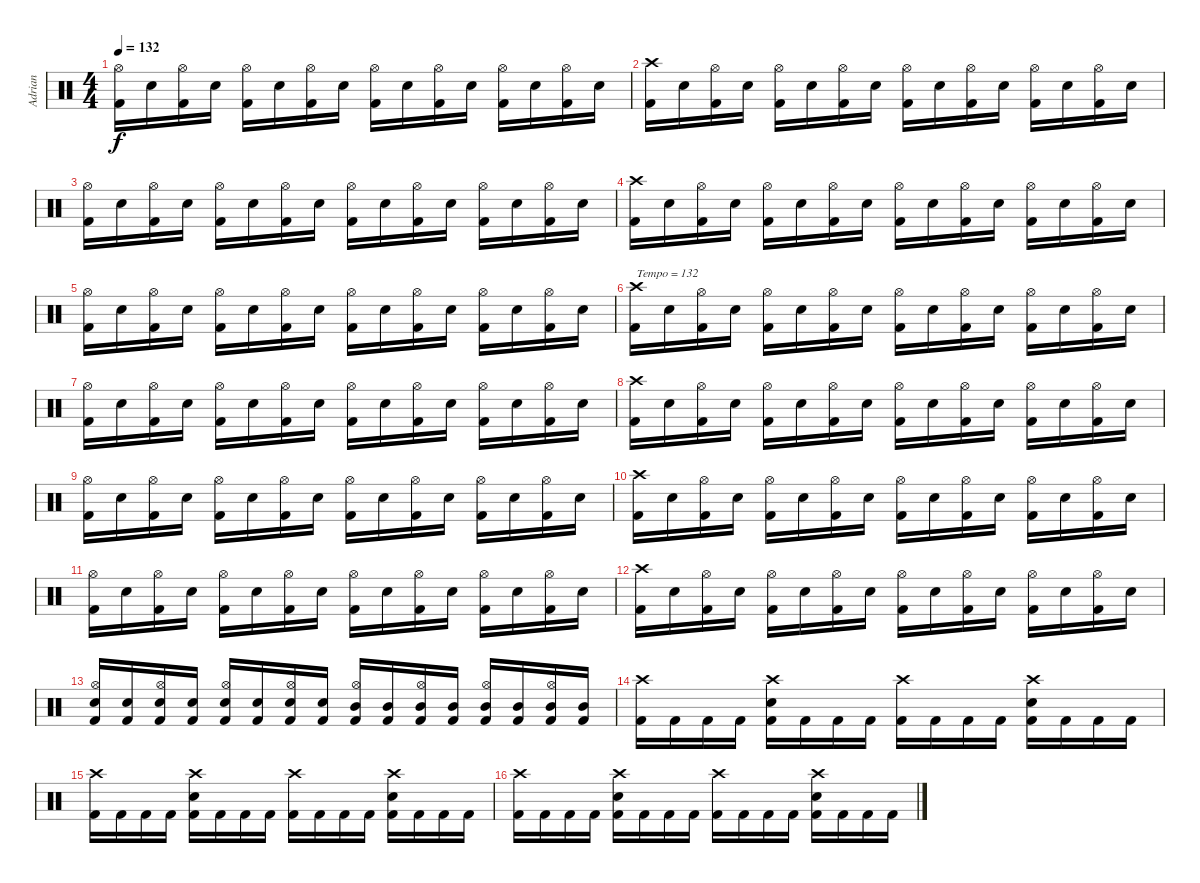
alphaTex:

\track ("Adrian" "Adrian") {instrument percussion}
\staff {score}
\articulation defaults
\ts (4 4)
\tempo 132
\clef neutral
\ks c
("Kick (hit) 2" "Hi-Hat (open)").16{dy f} "Snare (hit) 2".16 ("Kick (hit) 2" "Hi-Hat (open)").16 "Snare (hit) 2".16 ("Kick (hit) 2" "Hi-Hat (open)").16 "Snare (hit) 2".16 ("Kick (hit) 2" "Hi-Hat (open)").16 "Snare (hit) 2".16 ("Kick (hit) 2" "Hi-Hat (open)").16 "Snare (hit) 2".16 ("Kick (hit) 2" "Hi-Hat (open)").16 "Snare (hit) 2".16 ("Kick (hit) 2" "Hi-Hat (open)").16 "Snare (hit) 2".16 ("Kick (hit) 2" "Hi-Hat (open)").16 "Snare (hit) 2".16 |
("Kick (hit) 2" "Crash high (hit)").16 "Snare (hit) 2".16 ("Kick (hit) 2" "Hi-Hat (open)").16 "Snare (hit) 2".16 ("Kick (hit) 2" "Hi-Hat (open)").16 "Snare (hit) 2".16 ("Kick (hit) 2" "Hi-Hat (open)").16 "Snare (hit) 2".16 ("Kick (hit) 2" "Hi-Hat (open)").16 "Snare (hit) 2".16 ("Kick (hit) 2" "Hi-Hat (open)").16 "Snare (hit) 2".16 ("Kick (hit) 2" "Hi-Hat (open)").16 "Snare (hit) 2".16 ("Kick (hit) 2" "Hi-Hat (open)").16 "Snare (hit) 2".16 |
("Kick (hit) 2" "Hi-Hat (open)").16 "Snare (hit) 2".16 ("Kick (hit) 2" "Hi-Hat (open)").16 "Snare (hit) 2".16 ("Kick (hit) 2" "Hi-Hat (open)").16 "Snare (hit) 2".16 ("Kick (hit) 2" "Hi-Hat (open)").16 "Snare (hit) 2".16 ("Kick (hit) 2" "Hi-Hat (open)").16 "Snare (hit) 2".16 ("Kick (hit) 2" "Hi-Hat (open)").16 "Snare (hit) 2".16 ("Kick (hit) 2" "Hi-Hat (open)").16 "Snare (hit) 2".16 ("Kick (hit) 2" "Hi-Hat (open)").16 "Snare (hit) 2".16 |
("Kick (hit) 2" "Crash high (hit)").16 "Snare (hit) 2".16 ("Kick (hit) 2" "Hi-Hat (open)").16 "Snare (hit) 2".16 ("Kick (hit) 2" "Hi-Hat (open)").16 "Snare (hit) 2".16 ("Kick (hit) 2" "Hi-Hat (open)").16 "Snare (hit) 2".16 ("Kick (hit) 2" "Hi-Hat (open)").16 "Snare (hit) 2".16 ("Kick (hit) 2" "Hi-Hat (open)").16 "Snare (hit) 2".16 ("Kick (hit) 2" "Hi-Hat (open)").16 "Snare (hit) 2".16 ("Kick (hit) 2" "Hi-Hat (open)").16 "Snare (hit) 2".16 |
("Kick (hit) 2" "Hi-Hat (open)").16 "Snare (hit) 2".16 ("Kick (hit) 2" "Hi-Hat (open)").16 "Snare (hit) 2".16 ("Kick (hit) 2" "Hi-Hat (open)").16 "Snare (hit) 2".16 ("Kick (hit) 2" "Hi-Hat (open)").16 "Snare (hit) 2".16 ("Kick (hit) 2" "Hi-Hat (open)").16 "Snare (hit) 2".16 ("Kick (hit) 2" "Hi-Hat (open)").16 "Snare (hit) 2".16 ("Kick (hit) 2" "Hi-Hat (open)").16 "Snare (hit) 2".16 ("Kick (hit) 2" "Hi-Hat (open)").16 "Snare (hit) 2".16 |
("Kick (hit) 2" "Crash high (hit)").16{txt "Tempo = 132"} "Snare (hit) 2".16 ("Kick (hit) 2" "Hi-Hat (open)").16 "Snare (hit) 2".16 ("Kick (hit) 2" "Hi-Hat (open)").16 "Snare (hit) 2".16 ("Kick (hit) 2" "Hi-Hat (open)").16 "Snare (hit) 2".16 ("Kick (hit) 2" "Hi-Hat (open)").16 "Snare (hit) 2".16 ("Kick (hit) 2" "Hi-Hat (open)").16 "Snare (hit) 2".16 ("Kick (hit) 2" "Hi-Hat (open)").16 "Snare (hit) 2".16 ("Kick (hit) 2" "Hi-Hat (open)").16 "Snare (hit) 2".16 |
("Kick (hit) 2" "Hi-Hat (open)").16 "Snare (hit) 2".16 ("Kick (hit) 2" "Hi-Hat (open)").16 "Snare (hit) 2".16 ("Kick (hit) 2" "Hi-Hat (open)").16 "Snare (hit) 2".16 ("Kick (hit) 2" "Hi-Hat (open)").16 "Snare (hit) 2".16 ("Kick (hit) 2" "Hi-Hat (open)").16 "Snare (hit) 2".16 ("Kick (hit) 2" "Hi-Hat (open)").16 "Snare (hit) 2".16 ("Kick (hit) 2" "Hi-Hat (open)").16 "Snare (hit) 2".16 ("Kick (hit) 2" "Hi-Hat (open)").16 "Snare (hit) 2".16 |
("Kick (hit) 2" "Crash high (hit)").16 "Snare (hit) 2".16 ("Kick (hit) 2" "Hi-Hat (open)").16 "Snare (hit) 2".16 ("Kick (hit) 2" "Hi-Hat (open)").16 "Snare (hit) 2".16 ("Kick (hit) 2" "Hi-Hat (open)").16 "Snare (hit) 2".16 ("Kick (hit) 2" "Hi-Hat (open)").16 "Snare (hit) 2".16 ("Kick (hit) 2" "Hi-Hat (open)").16 "Snare (hit) 2".16 ("Kick (hit) 2" "Hi-Hat (open)").16 "Snare (hit) 2".16 ("Kick (hit) 2" "Hi-Hat (open)").16 "Snare (hit) 2".16 |
("Kick (hit) 2" "Hi-Hat (open)").16 "Snare (hit) 2".16 ("Kick (hit) 2" "Hi-Hat (open)").16 "Snare (hit) 2".16 ("Kick (hit) 2" "Hi-Hat (open)").16 "Snare (hit) 2".16 ("Kick (hit) 2" "Hi-Hat (open)").16 "Snare (hit) 2".16 ("Kick (hit) 2" "Hi-Hat (open)").16 "Snare (hit) 2".16 ("Kick (hit) 2" "Hi-Hat (open)").16 "Snare (hit) 2".16 ("Kick (hit) 2" "Hi-Hat (open)").16 "Snare (hit) 2".16 ("Kick (hit) 2" "Hi-Hat (open)").16 "Snare (hit) 2".16 |
("Kick (hit) 2" "Crash high (hit)").16 "Snare (hit) 2".16 ("Kick (hit) 2" "Hi-Hat (open)").16 "Snare (hit) 2".16 ("Kick (hit) 2" "Hi-Hat (open)").16 "Snare (hit) 2".16 ("Kick (hit) 2" "Hi-Hat (open)").16 "Snare (hit) 2".16 ("Kick (hit) 2" "Hi-Hat (open)").16 "Snare (hit) 2".16 ("Kick (hit) 2" "Hi-Hat (open)").16 "Snare (hit) 2".16 ("Kick (hit) 2" "Hi-Hat (open)").16 "Snare (hit) 2".16 ("Kick (hit) 2" "Hi-Hat (open)").16 "Snare (hit) 2".16 |
("Kick (hit) 2" "Hi-Hat (open)").16 "Snare (hit) 2".16 ("Kick (hit) 2" "Hi-Hat (open)").16 "Snare (hit) 2".16 ("Kick (hit) 2" "Hi-Hat (open)").16 "Snare (hit) 2".16 ("Kick (hit) 2" "Hi-Hat (open)").16 "Snare (hit) 2".16 ("Kick (hit) 2" "Hi-Hat (open)").16 "Snare (hit) 2".16 ("Kick (hit) 2" "Hi-Hat (open)").16 "Snare (hit) 2".16 ("Kick (hit) 2" "Hi-Hat (open)").16 "Snare (hit) 2".16 ("Kick (hit) 2" "Hi-Hat (open)").16 "Snare (hit) 2".16 |
("Kick (hit) 2" "Crash high (hit)").16 "Snare (hit) 2".16 ("Kick (hit) 2" "Hi-Hat (open)").16 "Snare (hit) 2".16 ("Kick (hit) 2" "Hi-Hat (open)").16 "Snare (hit) 2".16 ("Kick (hit) 2" "Hi-Hat (open)").16 "Snare (hit) 2".16 ("Kick (hit) 2" "Hi-Hat (open)").16 "Snare (hit) 2".16 ("Kick (hit) 2" "Hi-Hat (open)").16 "Snare (hit) 2".16 ("Kick (hit) 2" "Hi-Hat (open)").16 "Snare (hit) 2".16 ("Kick (hit) 2" "Hi-Hat (open)").16 "Snare (hit) 2".16 |
("Kick (hit) 2" "Snare (hit) 2" "Hi-Hat (open)").16 ("Kick (hit) 2" "Snare (hit) 2").16 ("Kick (hit) 2" "Snare (hit) 2" "Hi-Hat (open)").16 ("Kick (hit) 2" "Snare (hit) 2").16 ("Kick (hit) 2" "Snare (hit) 2" "Hi-Hat (open)").16 ("Kick (hit) 2" "Snare (hit) 2").16 ("Kick (hit) 2" "Snare (hit) 2" "Hi-Hat (open)").16 ("Kick (hit) 2" "Snare (hit) 2").16 ("Kick (hit) 2" "Mid Tom (hit)" "Hi-Hat (open)").16 ("Kick (hit) 2" "Mid Tom (hit)").16 ("Kick (hit) 2" "Mid Tom (hit)" "Hi-Hat (open)").16 ("Kick (hit) 2" "Mid Tom (hit)").16 ("Kick (hit) 2" "Mid Tom (hit)" "Hi-Hat (open)").16 ("Kick (hit) 2" "Mid Tom (hit)").16 ("Kick (hit) 2" "Mid Tom (hit)" "Hi-Hat (open)").16 ("Kick (hit) 2" "Mid Tom (hit)").16 |
("Kick (hit) 2" "Crash high (hit)").16 "Kick (hit) 2".16 "Kick (hit) 2".16 "Kick (hit) 2".16 ("Kick (hit) 2" "Snare (hit) 2" "Crash high (hit)").16 "Kick (hit) 2".16 "Kick (hit) 2".16 "Kick (hit) 2".16 ("Kick (hit) 2" "Crash high (hit)").16 "Kick (hit) 2".16 "Kick (hit) 2".16 "Kick (hit) 2".16 ("Kick (hit) 2" "Snare (hit) 2" "Crash high (hit)").16 "Kick (hit) 2".16 "Kick (hit) 2".16 "Kick (hit) 2".16 |
("Kick (hit) 2" "Crash high (hit)").16 "Kick (hit) 2".16 "Kick (hit) 2".16 "Kick (hit) 2".16 ("Kick (hit) 2" "Snare (hit) 2" "Crash high (hit)").16 "Kick (hit) 2".16 "Kick (hit) 2".16 "Kick (hit) 2".16 ("Kick (hit) 2" "Crash high (hit)").16 "Kick (hit) 2".16 "Kick (hit) 2".16 "Kick (hit) 2".16 ("Kick (hit) 2" "Snare (hit) 2" "Crash high (hit)").16 "Kick (hit) 2".16 "Kick (hit) 2".16 "Kick (hit) 2".16 |
("Kick (hit) 2" "Crash high (hit)").16 "Kick (hit) 2".16 "Kick (hit) 2".16 "Kick (hit) 2".16 ("Kick (hit) 2" "Snare (hit) 2" "Crash high (hit)").16 "Kick (hit) 2".16 "Kick (hit) 2".16 "Kick (hit) 2".16 ("Kick (hit) 2" "Crash high (hit)").16 "Kick (hit) 2".16 "Kick (hit) 2".16 "Kick (hit) 2".16 ("Kick (hit) 2" "Snare (hit) 2" "Crash high (hit)").16 "Kick (hit) 2".16 "Kick (hit) 2".16 "Kick (hit) 2".16
